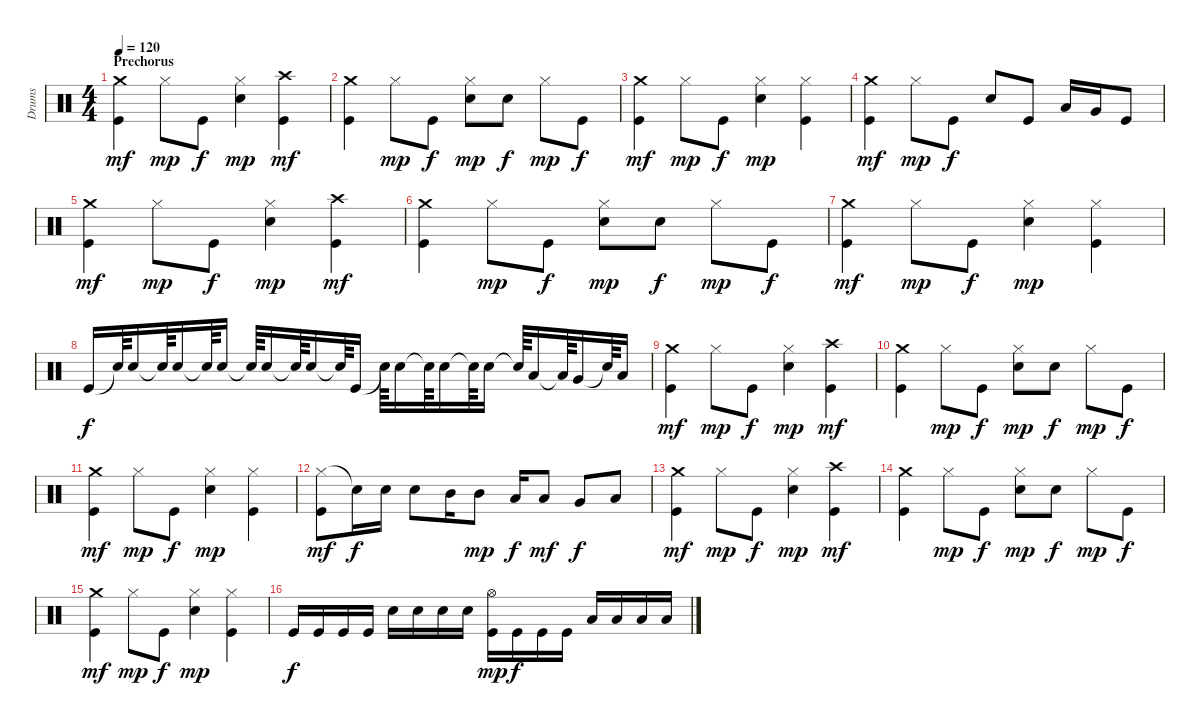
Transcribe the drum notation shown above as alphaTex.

\track ("Drums" "Drums") {instrument percussion}
\staff {score}
\articulation defaults
\ts (4 4)
\section ("" "Prechorus")
\tempo 120
\clef neutral
\ks c
("Crash medium (hit)" "Kick (hit)").4{dy mf} "Hi-Hat (closed)".8{dy mp} "Kick (hit)".8{dy f} ("Hi-Hat (closed)" "Electric Snare (hit)").4{dy mp} ("Crash high (hit)" "Kick (hit)").4{dy mf} |
("Crash medium (hit)" "Kick (hit)").4 "Hi-Hat (closed)".8{dy mp} "Kick (hit)".8{dy f} ("Hi-Hat (closed)" "Electric Snare (hit)").8{dy mp} "Electric Snare (hit)".8{dy f} "Hi-Hat (closed)".8{dy mp} "Kick (hit)".8{dy f} |
("Crash medium (hit)" "Kick (hit)").4{dy mf} "Hi-Hat (closed)".8{dy mp} "Kick (hit)".8{dy f} ("Hi-Hat (closed)" "Electric Snare (hit)").4{dy mp} ("Hi-Hat (closed)" "Kick (hit)").4 |
("Crash medium (hit)" "Kick (hit)").4{dy mf} "Hi-Hat (closed)".8{dy mp} "Kick (hit)".8{dy f} "Electric Snare (hit)".8 "Kick (hit)".8 "Low Tom (hit)".16 "Very Low Tom (hit)".16 "Kick (hit)".8 |
("Crash medium (hit)" "Kick (hit)").4{dy mf} "Hi-Hat (closed)".8{dy mp} "Kick (hit)".8{dy f} ("Hi-Hat (closed)" "Electric Snare (hit)").4{dy mp} ("Crash high (hit)" "Kick (hit)").4{dy mf} |
("Crash medium (hit)" "Kick (hit)").4 "Hi-Hat (closed)".8{dy mp} "Kick (hit)".8{dy f} ("Hi-Hat (closed)" "Electric Snare (hit)").8{dy mp} "Electric Snare (hit)".8{dy f} "Hi-Hat (closed)".8{dy mp} "Kick (hit)".8{dy f} |
("Crash medium (hit)" "Kick (hit)").4{dy mf} "Hi-Hat (closed)".8{dy mp} "Kick (hit)".8{dy f} ("Hi-Hat (closed)" "Electric Snare (hit)").4{dy mp} ("Hi-Hat (closed)" "Kick (hit)").4 |
"Kick (hit)".16{dy f} "Electric Snare (hit)"{t}.64 "Electric Snare (hit)".16 "Electric Snare (hit)"{t}.64 "Electric Snare (hit)".16 "Electric Snare (hit)"{t}.64 "Electric Snare (hit)".16 "Snare (hit)"{t}.64 "Electric Snare (hit)".16 "Snare (hit)"{t}.64 "Electric Snare (hit)".16 "Snare (hit)"{t}.64 "Kick (hit)".16 "Snare (hit)"{t}.64 "Electric Snare (hit)".16 "Snare (hit)"{t}.64 "Electric Snare (hit)".16 "Snare (hit)"{t}.64 "Electric Snare (hit)".16 "Snare (hit)"{t}.64 "Low Tom (hit)".16 "Low Tom (hit)"{t}.64 "Very Low Tom (hit)".16 "Snare (hit)"{t}.64 "Low Floor Tom (hit)".16 |
("Crash medium (hit)" "Kick (hit)").4{dy mf} "Hi-Hat (closed)".8{dy mp} "Kick (hit)".8{dy f} ("Hi-Hat (closed)" "Electric Snare (hit)").4{dy mp} ("Crash high (hit)" "Kick (hit)").4{dy mf} |
("Crash medium (hit)" "Kick (hit)").4 "Hi-Hat (closed)".8{dy mp} "Kick (hit)".8{dy f} ("Hi-Hat (closed)" "Electric Snare (hit)").8{dy mp} "Electric Snare (hit)".8{dy f} "Hi-Hat (closed)".8{dy mp} "Kick (hit)".8{dy f} |
("Crash medium (hit)" "Kick (hit)").4{dy mf} "Hi-Hat (closed)".8{dy mp} "Kick (hit)".8{dy f} ("Hi-Hat (closed)" "Electric Snare (hit)").4{dy mp} ("Hi-Hat (closed)" "Kick (hit)").4 |
("Hi-Hat (closed)" "Kick (hit)").8{dy mf} "Snare (hit)"{t}.16{dy f} "Electric Snare (hit)".16 "Electric Snare (hit)".8 "Mid Tom (hit)".16 "Mid Tom (hit)".8{dy mp} "Low Tom (hit)".16{dy f} "Low Tom (hit)".8{dy mf} "Very Low Tom (hit)".8{dy f} "Low Floor Tom (hit)".8 |
("Crash medium (hit)" "Kick (hit)").4{dy mf} "Hi-Hat (closed)".8{dy mp} "Kick (hit)".8{dy f} ("Hi-Hat (closed)" "Electric Snare (hit)").4{dy mp} ("Crash high (hit)" "Kick (hit)").4{dy mf} |
("Crash medium (hit)" "Kick (hit)").4 "Hi-Hat (closed)".8{dy mp} "Kick (hit)".8{dy f} ("Hi-Hat (closed)" "Electric Snare (hit)").8{dy mp} "Electric Snare (hit)".8{dy f} "Hi-Hat (closed)".8{dy mp} "Kick (hit)".8{dy f} |
("Crash medium (hit)" "Kick (hit)").4{dy mf} "Hi-Hat (closed)".8{dy mp} "Kick (hit)".8{dy f} ("Hi-Hat (closed)" "Electric Snare (hit)").4{dy mp} ("Hi-Hat (closed)" "Kick (hit)").4 |
"Kick (hit)".16{dy f} "Kick (hit)".16 "Kick (hit)".16 "Kick (hit)".16 "Electric Snare (hit)".16 "Electric Snare (hit)".16 "Electric Snare (hit)".16 "Electric Snare (hit)".16 ("Hi-Hat (open)" "Kick (hit)").16{dy mp} "Kick (hit)".16{dy f} "Kick (hit)".16 "Kick (hit)".16 "Low Floor Tom (hit)".16 "Low Floor Tom (hit)".16 "Low Floor Tom (hit)".16 "Low Floor Tom (hit)".16
